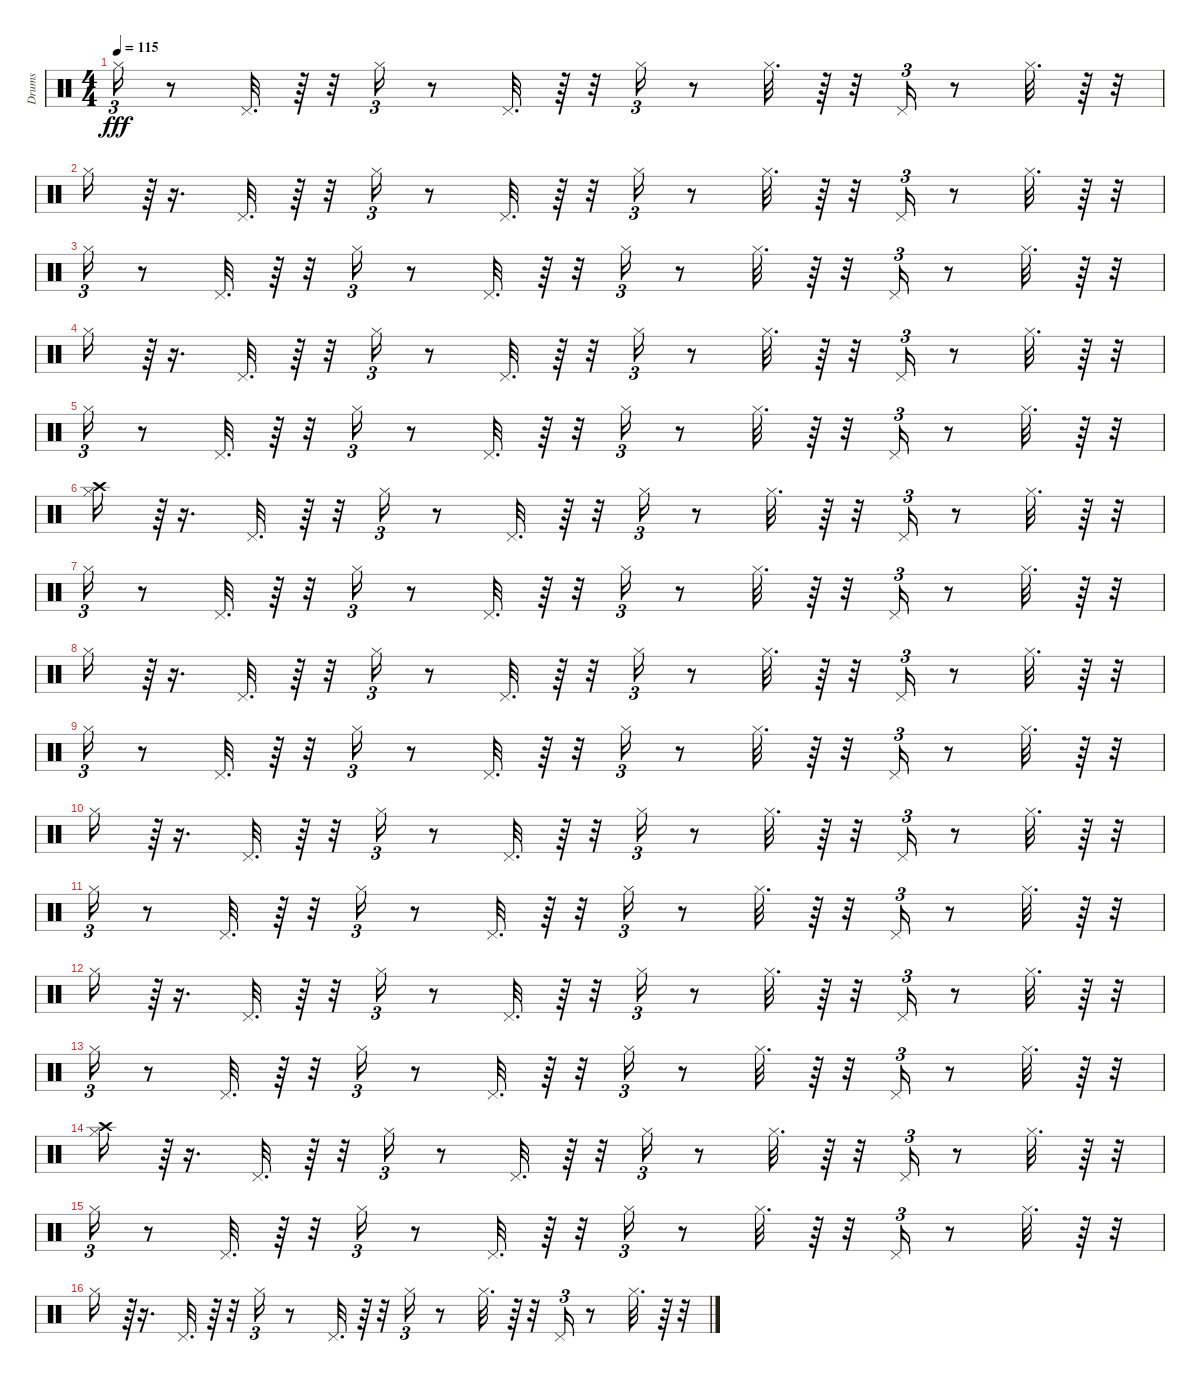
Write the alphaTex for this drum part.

\track ("Drums" "Drums") {instrument percussion}
\staff {score}
\articulation defaults
\ts (4 4)
\tempo 115
\clef neutral
\ks c "Hi-Hat (closed)".16{tu (3 2) dy fff}
r.8 "Pedal Hi-Hat (hit)".32{d} r.64 r.32 "Hi-Hat (closed)".16{tu (3 2)} r.8 "Pedal Hi-Hat (hit)".32{d} r.64 r.32 "Hi-Hat (closed)".16{tu (3 2)} r.8 "Hi-Hat (closed)".32{d} r.64 r.32 "Pedal Hi-Hat (hit)".16{tu (3 2)} r.8 "Hi-Hat (closed)".32{d} r.64 r.32 |
"Hi-Hat (closed)".16 r.64{tu (3 2)} r.16{d} "Pedal Hi-Hat (hit)".32{d} r.64 r.32 "Hi-Hat (closed)".16{tu (3 2)} r.8 "Pedal Hi-Hat (hit)".32{d} r.64 r.32 "Hi-Hat (closed)".16{tu (3 2)} r.8 "Hi-Hat (closed)".32{d} r.64 r.32 "Pedal Hi-Hat (hit)".16{tu (3 2)} r.8 "Hi-Hat (closed)".32{d} r.64 r.32 |
"Hi-Hat (closed)".16{tu (3 2)} r.8 "Pedal Hi-Hat (hit)".32{d} r.64 r.32 "Hi-Hat (closed)".16{tu (3 2)} r.8 "Pedal Hi-Hat (hit)".32{d} r.64 r.32 "Hi-Hat (closed)".16{tu (3 2)} r.8 "Hi-Hat (closed)".32{d} r.64 r.32 "Pedal Hi-Hat (hit)".16{tu (3 2)} r.8 "Hi-Hat (closed)".32{d} r.64 r.32 |
"Hi-Hat (closed)".16 r.64{tu (3 2)} r.16{d} "Pedal Hi-Hat (hit)".32{d} r.64 r.32 "Hi-Hat (closed)".16{tu (3 2)} r.8 "Pedal Hi-Hat (hit)".32{d} r.64 r.32 "Hi-Hat (closed)".16{tu (3 2)} r.8 "Hi-Hat (closed)".32{d} r.64 r.32 "Pedal Hi-Hat (hit)".16{tu (3 2)} r.8 "Hi-Hat (closed)".32{d} r.64 r.32 |
"Hi-Hat (closed)".16{tu (3 2)} r.8 "Pedal Hi-Hat (hit)".32{d} r.64 r.32 "Hi-Hat (closed)".16{tu (3 2)} r.8 "Pedal Hi-Hat (hit)".32{d} r.64 r.32 "Hi-Hat (closed)".16{tu (3 2)} r.8 "Hi-Hat (closed)".32{d} r.64 r.32 "Pedal Hi-Hat (hit)".16{tu (3 2)} r.8 "Hi-Hat (closed)".32{d} r.64 r.32 |
("Crash high (hit)" "Hi-Hat (closed)").16 r.64{tu (3 2)} r.16{d} "Pedal Hi-Hat (hit)".32{d} r.64 r.32 "Hi-Hat (closed)".16{tu (3 2)} r.8 "Pedal Hi-Hat (hit)".32{d} r.64 r.32 "Hi-Hat (closed)".16{tu (3 2)} r.8 "Hi-Hat (closed)".32{d} r.64 r.32 "Pedal Hi-Hat (hit)".16{tu (3 2)} r.8 "Hi-Hat (closed)".32{d} r.64 r.32 |
"Hi-Hat (closed)".16{tu (3 2)} r.8 "Pedal Hi-Hat (hit)".32{d} r.64 r.32 "Hi-Hat (closed)".16{tu (3 2)} r.8 "Pedal Hi-Hat (hit)".32{d} r.64 r.32 "Hi-Hat (closed)".16{tu (3 2)} r.8 "Hi-Hat (closed)".32{d} r.64 r.32 "Pedal Hi-Hat (hit)".16{tu (3 2)} r.8 "Hi-Hat (closed)".32{d} r.64 r.32 |
"Hi-Hat (closed)".16 r.64{tu (3 2)} r.16{d} "Pedal Hi-Hat (hit)".32{d} r.64 r.32 "Hi-Hat (closed)".16{tu (3 2)} r.8 "Pedal Hi-Hat (hit)".32{d} r.64 r.32 "Hi-Hat (closed)".16{tu (3 2)} r.8 "Hi-Hat (closed)".32{d} r.64 r.32 "Pedal Hi-Hat (hit)".16{tu (3 2)} r.8 "Hi-Hat (closed)".32{d} r.64 r.32 |
"Hi-Hat (closed)".16{tu (3 2)} r.8 "Pedal Hi-Hat (hit)".32{d} r.64 r.32 "Hi-Hat (closed)".16{tu (3 2)} r.8 "Pedal Hi-Hat (hit)".32{d} r.64 r.32 "Hi-Hat (closed)".16{tu (3 2)} r.8 "Hi-Hat (closed)".32{d} r.64 r.32 "Pedal Hi-Hat (hit)".16{tu (3 2)} r.8 "Hi-Hat (closed)".32{d} r.64 r.32 |
"Hi-Hat (closed)".16 r.64{tu (3 2)} r.16{d} "Pedal Hi-Hat (hit)".32{d} r.64 r.32 "Hi-Hat (closed)".16{tu (3 2)} r.8 "Pedal Hi-Hat (hit)".32{d} r.64 r.32 "Hi-Hat (closed)".16{tu (3 2)} r.8 "Hi-Hat (closed)".32{d} r.64 r.32 "Pedal Hi-Hat (hit)".16{tu (3 2)} r.8 "Hi-Hat (closed)".32{d} r.64 r.32 |
"Hi-Hat (closed)".16{tu (3 2)} r.8 "Pedal Hi-Hat (hit)".32{d} r.64 r.32 "Hi-Hat (closed)".16{tu (3 2)} r.8 "Pedal Hi-Hat (hit)".32{d} r.64 r.32 "Hi-Hat (closed)".16{tu (3 2)} r.8 "Hi-Hat (closed)".32{d} r.64 r.32 "Pedal Hi-Hat (hit)".16{tu (3 2)} r.8 "Hi-Hat (closed)".32{d} r.64 r.32 |
"Hi-Hat (closed)".16 r.64{tu (3 2)} r.16{d} "Pedal Hi-Hat (hit)".32{d} r.64 r.32 "Hi-Hat (closed)".16{tu (3 2)} r.8 "Pedal Hi-Hat (hit)".32{d} r.64 r.32 "Hi-Hat (closed)".16{tu (3 2)} r.8 "Hi-Hat (closed)".32{d} r.64 r.32 "Pedal Hi-Hat (hit)".16{tu (3 2)} r.8 "Hi-Hat (closed)".32{d} r.64 r.32 |
"Hi-Hat (closed)".16{tu (3 2)} r.8 "Pedal Hi-Hat (hit)".32{d} r.64 r.32 "Hi-Hat (closed)".16{tu (3 2)} r.8 "Pedal Hi-Hat (hit)".32{d} r.64 r.32 "Hi-Hat (closed)".16{tu (3 2)} r.8 "Hi-Hat (closed)".32{d} r.64 r.32 "Pedal Hi-Hat (hit)".16{tu (3 2)} r.8 "Hi-Hat (closed)".32{d} r.64 r.32 |
("Crash high (hit)" "Hi-Hat (closed)").16 r.64{tu (3 2)} r.16{d} "Pedal Hi-Hat (hit)".32{d} r.64 r.32 "Hi-Hat (closed)".16{tu (3 2)} r.8 "Pedal Hi-Hat (hit)".32{d} r.64 r.32 "Hi-Hat (closed)".16{tu (3 2)} r.8 "Hi-Hat (closed)".32{d} r.64 r.32 "Pedal Hi-Hat (hit)".16{tu (3 2)} r.8 "Hi-Hat (closed)".32{d} r.64 r.32 |
"Hi-Hat (closed)".16{tu (3 2)} r.8 "Pedal Hi-Hat (hit)".32{d} r.64 r.32 "Hi-Hat (closed)".16{tu (3 2)} r.8 "Pedal Hi-Hat (hit)".32{d} r.64 r.32 "Hi-Hat (closed)".16{tu (3 2)} r.8 "Hi-Hat (closed)".32{d} r.64 r.32 "Pedal Hi-Hat (hit)".16{tu (3 2)} r.8 "Hi-Hat (closed)".32{d} r.64 r.32 |
"Hi-Hat (closed)".16 r.64{tu (3 2)} r.16{d} "Pedal Hi-Hat (hit)".32{d} r.64 r.32 "Hi-Hat (closed)".16{tu (3 2)} r.8 "Pedal Hi-Hat (hit)".32{d} r.64 r.32 "Hi-Hat (closed)".16{tu (3 2)} r.8 "Hi-Hat (closed)".32{d} r.64 r.32 "Pedal Hi-Hat (hit)".16{tu (3 2)} r.8 "Hi-Hat (closed)".32{d} r.64 r.32
